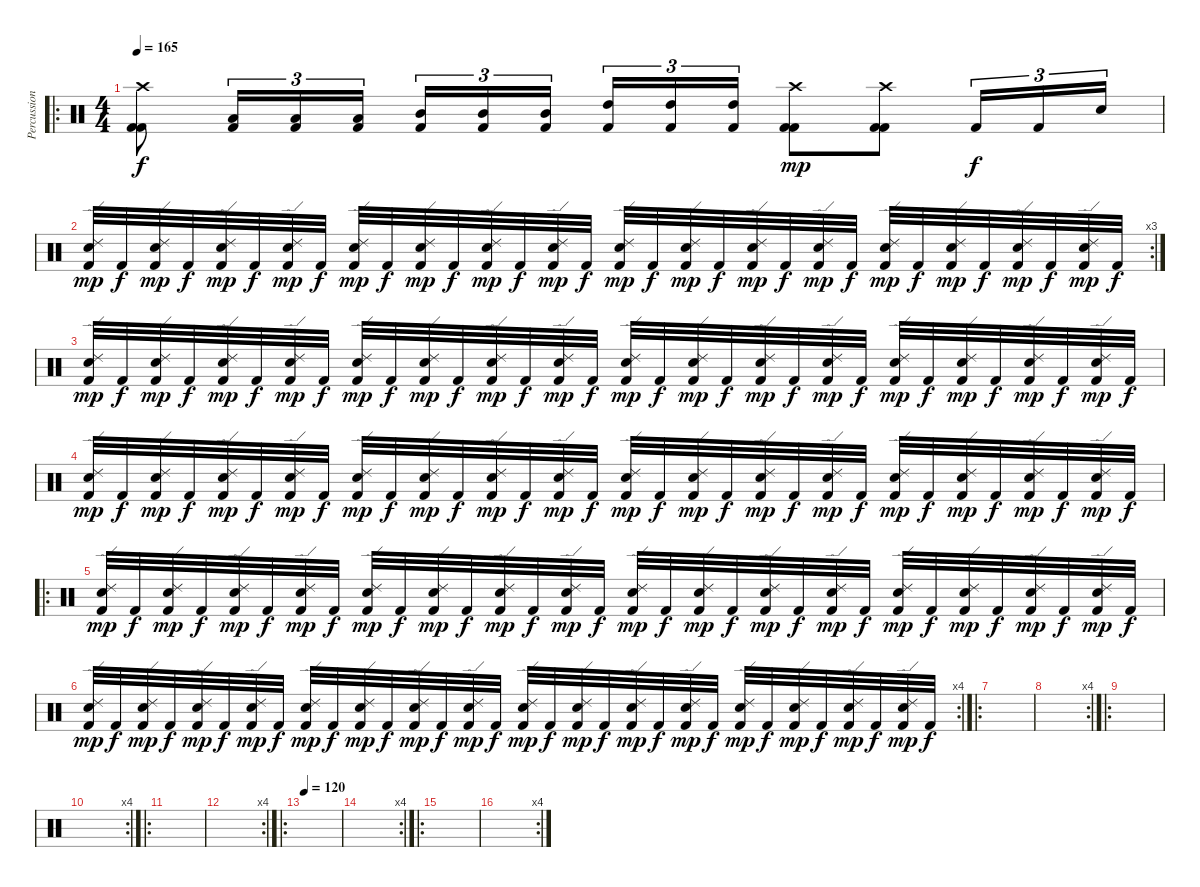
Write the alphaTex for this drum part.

\track ("Percussion" "Percussion") {instrument percussion}
\staff {score}
\articulation defaults
\ro
\ts (4 4)
\tempo 165
\clef neutral
\ks c
("Crash high (hit)" "Kick (hit) 2" "Kick (hit) 2").8{dy f} ("Kick (hit) 2" "Low Tom (hit)").16{tu (3 2)} ("Kick (hit) 2" "Low Tom (hit)").16{tu (3 2)} ("Kick (hit) 2" "Low Tom (hit)").16{tu (3 2)} ("Kick (hit) 2" "Mid Tom (hit)").16{tu (3 2)} ("Kick (hit) 2" "Mid Tom (hit)").16{tu (3 2)} ("Kick (hit) 2" "Mid Tom (hit)").16{tu (3 2) beam splitsecondary} ("Kick (hit) 2" "High Tom (hit)").16{tu (3 2)} ("Kick (hit) 2" "High Tom (hit)").16{tu (3 2)} ("Kick (hit) 2" "High Tom (hit)").16{tu (3 2)} ("Kick (hit) 2" "Crash high (hit)" "Kick (hit) 2").8{dy mp} ("Kick (hit) 2" "Crash high (hit)" "Kick (hit) 2").8 "Kick (hit) 2".16{tu (3 2) dy f} "Kick (hit) 2".16{tu (3 2)} "Electric Snare (hit)".16{tu (3 2)} |
\rc 3
("Ride (edge) 2" "Kick (hit) 2" "Electric Snare (hit)").32{dy mp} "Kick (hit) 2".32{dy f} ("Ride (edge) 2" "Kick (hit) 2" "Electric Snare (hit)").32{dy mp} "Kick (hit) 2".32{dy f} ("Ride (edge) 2" "Kick (hit) 2" "Electric Snare (hit)").32{dy mp} "Kick (hit) 2".32{dy f} ("Ride (edge) 2" "Kick (hit) 2" "Electric Snare (hit)").32{dy mp} "Kick (hit) 2".32{dy f} ("Ride (edge) 2" "Kick (hit) 2" "Electric Snare (hit)").32{dy mp} "Kick (hit) 2".32{dy f} ("Ride (edge) 2" "Kick (hit) 2" "Electric Snare (hit)").32{dy mp} "Kick (hit) 2".32{dy f} ("Ride (edge) 2" "Kick (hit) 2" "Electric Snare (hit)").32{dy mp} "Kick (hit) 2".32{dy f} ("Ride (edge) 2" "Kick (hit) 2" "Electric Snare (hit)").32{dy mp} "Kick (hit) 2".32{dy f} ("Ride (edge) 2" "Kick (hit) 2" "Electric Snare (hit)").32{dy mp} "Kick (hit) 2".32{dy f} ("Ride (edge) 2" "Kick (hit) 2" "Electric Snare (hit)").32{dy mp} "Kick (hit) 2".32{dy f} ("Ride (edge) 2" "Kick (hit) 2" "Electric Snare (hit)").32{dy mp} "Kick (hit) 2".32{dy f} ("Ride (edge) 2" "Kick (hit) 2" "Electric Snare (hit)").32{dy mp} "Kick (hit) 2".32{dy f} ("Ride (edge) 2" "Kick (hit) 2" "Electric Snare (hit)").32{dy mp} "Kick (hit) 2".32{dy f} ("Ride (edge) 2" "Kick (hit) 2" "Electric Snare (hit)").32{dy mp} "Kick (hit) 2".32{dy f} ("Ride (edge) 2" "Kick (hit) 2" "Electric Snare (hit)").32{dy mp} "Kick (hit) 2".32{dy f} ("Ride (edge) 2" "Kick (hit) 2" "Electric Snare (hit)").32{dy mp} "Kick (hit) 2".32{dy f} |
("Ride (edge) 2" "Kick (hit) 2" "Electric Snare (hit)").32{dy mp} "Kick (hit) 2".32{dy f} ("Ride (edge) 2" "Kick (hit) 2" "Electric Snare (hit)").32{dy mp} "Kick (hit) 2".32{dy f} ("Ride (edge) 2" "Kick (hit) 2" "Electric Snare (hit)").32{dy mp} "Kick (hit) 2".32{dy f} ("Ride (edge) 2" "Kick (hit) 2" "Electric Snare (hit)").32{dy mp} "Kick (hit) 2".32{dy f} ("Ride (edge) 2" "Kick (hit) 2" "Electric Snare (hit)").32{dy mp} "Kick (hit) 2".32{dy f} ("Ride (edge) 2" "Kick (hit) 2" "Electric Snare (hit)").32{dy mp} "Kick (hit) 2".32{dy f} ("Ride (edge) 2" "Kick (hit) 2" "Electric Snare (hit)").32{dy mp} "Kick (hit) 2".32{dy f} ("Ride (edge) 2" "Kick (hit) 2" "Electric Snare (hit)").32{dy mp} "Kick (hit) 2".32{dy f} ("Ride (edge) 2" "Kick (hit) 2" "Electric Snare (hit)").32{dy mp} "Kick (hit) 2".32{dy f} ("Ride (edge) 2" "Kick (hit) 2" "Electric Snare (hit)").32{dy mp} "Kick (hit) 2".32{dy f} ("Ride (edge) 2" "Kick (hit) 2" "Electric Snare (hit)").32{dy mp} "Kick (hit) 2".32{dy f} ("Ride (edge) 2" "Kick (hit) 2" "Electric Snare (hit)").32{dy mp} "Kick (hit) 2".32{dy f} ("Ride (edge) 2" "Kick (hit) 2" "Electric Snare (hit)").32{dy mp} "Kick (hit) 2".32{dy f} ("Ride (edge) 2" "Kick (hit) 2" "Electric Snare (hit)").32{dy mp} "Kick (hit) 2".32{dy f} ("Ride (edge) 2" "Kick (hit) 2" "Electric Snare (hit)").32{dy mp} "Kick (hit) 2".32{dy f} ("Ride (edge) 2" "Kick (hit) 2" "Electric Snare (hit)").32{dy mp} "Kick (hit) 2".32{dy f} |
("Ride (edge) 2" "Kick (hit) 2" "Electric Snare (hit)").32{dy mp} "Kick (hit) 2".32{dy f} ("Ride (edge) 2" "Kick (hit) 2" "Electric Snare (hit)").32{dy mp} "Kick (hit) 2".32{dy f} ("Ride (edge) 2" "Kick (hit) 2" "Electric Snare (hit)").32{dy mp} "Kick (hit) 2".32{dy f} ("Ride (edge) 2" "Kick (hit) 2" "Electric Snare (hit)").32{dy mp} "Kick (hit) 2".32{dy f} ("Ride (edge) 2" "Kick (hit) 2" "Electric Snare (hit)").32{dy mp} "Kick (hit) 2".32{dy f} ("Ride (edge) 2" "Kick (hit) 2" "Electric Snare (hit)").32{dy mp} "Kick (hit) 2".32{dy f} ("Ride (edge) 2" "Kick (hit) 2" "Electric Snare (hit)").32{dy mp} "Kick (hit) 2".32{dy f} ("Ride (edge) 2" "Kick (hit) 2" "Electric Snare (hit)").32{dy mp} "Kick (hit) 2".32{dy f} ("Ride (edge) 2" "Kick (hit) 2" "Electric Snare (hit)").32{dy mp} "Kick (hit) 2".32{dy f} ("Ride (edge) 2" "Kick (hit) 2" "Electric Snare (hit)").32{dy mp} "Kick (hit) 2".32{dy f} ("Ride (edge) 2" "Kick (hit) 2" "Electric Snare (hit)").32{dy mp} "Kick (hit) 2".32{dy f} ("Ride (edge) 2" "Kick (hit) 2" "Electric Snare (hit)").32{dy mp} "Kick (hit) 2".32{dy f} ("Ride (edge) 2" "Kick (hit) 2" "Electric Snare (hit)").32{dy mp} "Kick (hit) 2".32{dy f} ("Ride (edge) 2" "Kick (hit) 2" "Electric Snare (hit)").32{dy mp} "Kick (hit) 2".32{dy f} ("Ride (edge) 2" "Kick (hit) 2" "Electric Snare (hit)").32{dy mp} "Kick (hit) 2".32{dy f} ("Ride (edge) 2" "Kick (hit) 2" "Electric Snare (hit)").32{dy mp} "Kick (hit) 2".32{dy f} |
\ro
("Ride (edge) 2" "Kick (hit) 2" "Electric Snare (hit)").32{dy mp} "Kick (hit) 2".32{dy f} ("Ride (edge) 2" "Kick (hit) 2" "Electric Snare (hit)").32{dy mp} "Kick (hit) 2".32{dy f} ("Ride (edge) 2" "Kick (hit) 2" "Electric Snare (hit)").32{dy mp} "Kick (hit) 2".32{dy f} ("Ride (edge) 2" "Kick (hit) 2" "Electric Snare (hit)").32{dy mp} "Kick (hit) 2".32{dy f} ("Ride (edge) 2" "Kick (hit) 2" "Electric Snare (hit)").32{dy mp} "Kick (hit) 2".32{dy f} ("Ride (edge) 2" "Kick (hit) 2" "Electric Snare (hit)").32{dy mp} "Kick (hit) 2".32{dy f} ("Ride (edge) 2" "Kick (hit) 2" "Electric Snare (hit)").32{dy mp} "Kick (hit) 2".32{dy f} ("Ride (edge) 2" "Kick (hit) 2" "Electric Snare (hit)").32{dy mp} "Kick (hit) 2".32{dy f} ("Ride (edge) 2" "Kick (hit) 2" "Electric Snare (hit)").32{dy mp} "Kick (hit) 2".32{dy f} ("Ride (edge) 2" "Kick (hit) 2" "Electric Snare (hit)").32{dy mp} "Kick (hit) 2".32{dy f} ("Ride (edge) 2" "Kick (hit) 2" "Electric Snare (hit)").32{dy mp} "Kick (hit) 2".32{dy f} ("Ride (edge) 2" "Kick (hit) 2" "Electric Snare (hit)").32{dy mp} "Kick (hit) 2".32{dy f} ("Ride (edge) 2" "Kick (hit) 2" "Electric Snare (hit)").32{dy mp} "Kick (hit) 2".32{dy f} ("Ride (edge) 2" "Kick (hit) 2" "Electric Snare (hit)").32{dy mp} "Kick (hit) 2".32{dy f} ("Ride (edge) 2" "Kick (hit) 2" "Electric Snare (hit)").32{dy mp} "Kick (hit) 2".32{dy f} ("Ride (edge) 2" "Kick (hit) 2" "Electric Snare (hit)").32{dy mp} "Kick (hit) 2".32{dy f} |
\rc 4
("Ride (edge) 2" "Kick (hit) 2" "Electric Snare (hit)").32{dy mp} "Kick (hit) 2".32{dy f} ("Ride (edge) 2" "Kick (hit) 2" "Electric Snare (hit)").32{dy mp} "Kick (hit) 2".32{dy f} ("Ride (edge) 2" "Kick (hit) 2" "Electric Snare (hit)").32{dy mp} "Kick (hit) 2".32{dy f} ("Ride (edge) 2" "Kick (hit) 2" "Electric Snare (hit)").32{dy mp} "Kick (hit) 2".32{dy f} ("Ride (edge) 2" "Kick (hit) 2" "Electric Snare (hit)").32{dy mp} "Kick (hit) 2".32{dy f} ("Ride (edge) 2" "Kick (hit) 2" "Electric Snare (hit)").32{dy mp} "Kick (hit) 2".32{dy f} ("Ride (edge) 2" "Kick (hit) 2" "Electric Snare (hit)").32{dy mp} "Kick (hit) 2".32{dy f} ("Ride (edge) 2" "Kick (hit) 2" "Electric Snare (hit)").32{dy mp} "Kick (hit) 2".32{dy f} ("Ride (edge) 2" "Kick (hit) 2" "Electric Snare (hit)").32{dy mp} "Kick (hit) 2".32{dy f} ("Ride (edge) 2" "Kick (hit) 2" "Electric Snare (hit)").32{dy mp} "Kick (hit) 2".32{dy f} ("Ride (edge) 2" "Kick (hit) 2" "Electric Snare (hit)").32{dy mp} "Kick (hit) 2".32{dy f} ("Ride (edge) 2" "Kick (hit) 2" "Electric Snare (hit)").32{dy mp} "Kick (hit) 2".32{dy f} ("Ride (edge) 2" "Kick (hit) 2" "Electric Snare (hit)").32{dy mp} "Kick (hit) 2".32{dy f} ("Ride (edge) 2" "Kick (hit) 2" "Electric Snare (hit)").32{dy mp} "Kick (hit) 2".32{dy f} ("Ride (edge) 2" "Kick (hit) 2" "Electric Snare (hit)").32{dy mp} "Kick (hit) 2".32{dy f} ("Ride (edge) 2" "Kick (hit) 2" "Electric Snare (hit)").32{dy mp} "Kick (hit) 2".32{dy f} |
\ro
|
\rc 4
|
\ro
|
\rc 4
|
\ro
|
\rc 4
|
\ro
\tempo 120
|
\rc 4
|
\ro
|
\rc 4
